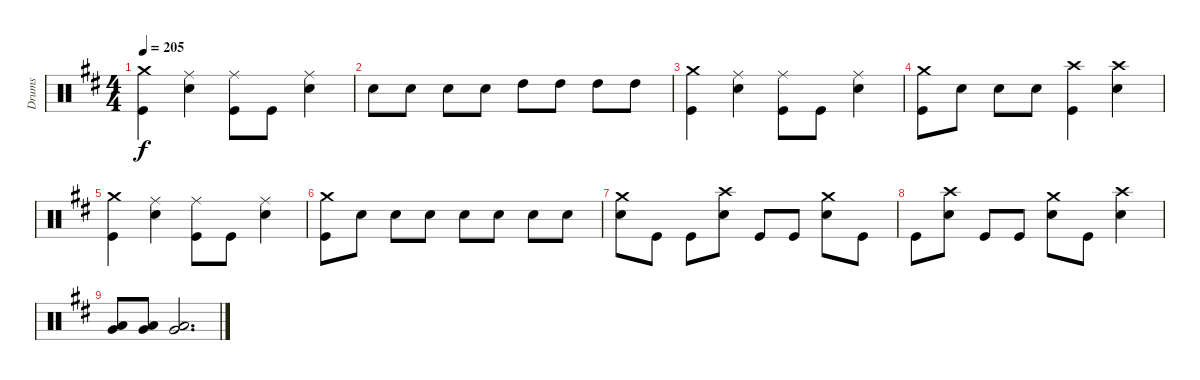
\track ("Drums" "Drums") {instrument percussion}
\staff {score}
\articulation defaults
\ts (4 4)
\tempo 205
\clef neutral
\ks d
("Crash medium (hit)" "Kick (hit)").4{dy f} ("Ride (middle)" "Electric Snare (hit)").4 ("Ride (middle)" "Kick (hit)").8 "Kick (hit)".8 ("Ride (middle)" "Electric Snare (hit)").4 |
"Electric Snare (hit)".8 "Electric Snare (hit)".8 "Electric Snare (hit)".8 "Electric Snare (hit)".8 "High Tom (hit)".8 "High Tom (hit)".8 "High Tom (hit)".8 "High Tom (hit)".8 |
("Crash medium (hit)" "Kick (hit)").4 ("Ride (middle)" "Electric Snare (hit)").4 ("Ride (middle)" "Kick (hit)").8 "Kick (hit)".8 ("Ride (middle)" "Electric Snare (hit)").4 |
("Crash medium (hit)" "Kick (hit)").8 "Electric Snare (hit)".8 "Electric Snare (hit)".8 "Electric Snare (hit)".8 ("Crash high (hit)" "Kick (hit)").4 ("Electric Snare (hit)" "Crash high (hit)").4 |
("Crash medium (hit)" "Kick (hit)").4 ("Electric Snare (hit)" "Ride (middle)").4 ("Kick (hit)" "Ride (middle)").8 "Kick (hit)".8 ("Electric Snare (hit)" "Ride (middle)").4 |
("Crash medium (hit)" "Kick (hit)").8 "Electric Snare (hit)".8 "Electric Snare (hit)".8 "Electric Snare (hit)".8 "Electric Snare (hit)".8 "Electric Snare (hit)".8 "Electric Snare (hit)".8 "Electric Snare (hit)".8 |
("Electric Snare (hit)" "Crash medium (hit)").8 "Kick (hit)".8 "Kick (hit)".8 ("Electric Snare (hit)" "Crash high (hit)").8 "Kick (hit)".8 "Kick (hit)".8 ("Electric Snare (hit)" "Crash medium (hit)").8 "Kick (hit)".8 |
"Kick (hit)".8 ("Electric Snare (hit)" "Crash high (hit)").8 "Kick (hit)".8 "Kick (hit)".8 ("Electric Snare (hit)" "Crash medium (hit)").8 "Kick (hit)".8 ("Electric Snare (hit)" "Crash high (hit)").4 |
("Low Floor Tom (hit)" "Very Low Tom (hit)").8 ("Low Floor Tom (hit)" "Very Low Tom (hit)").8 ("Low Floor Tom (hit)" "Very Low Tom (hit)").2{d}
